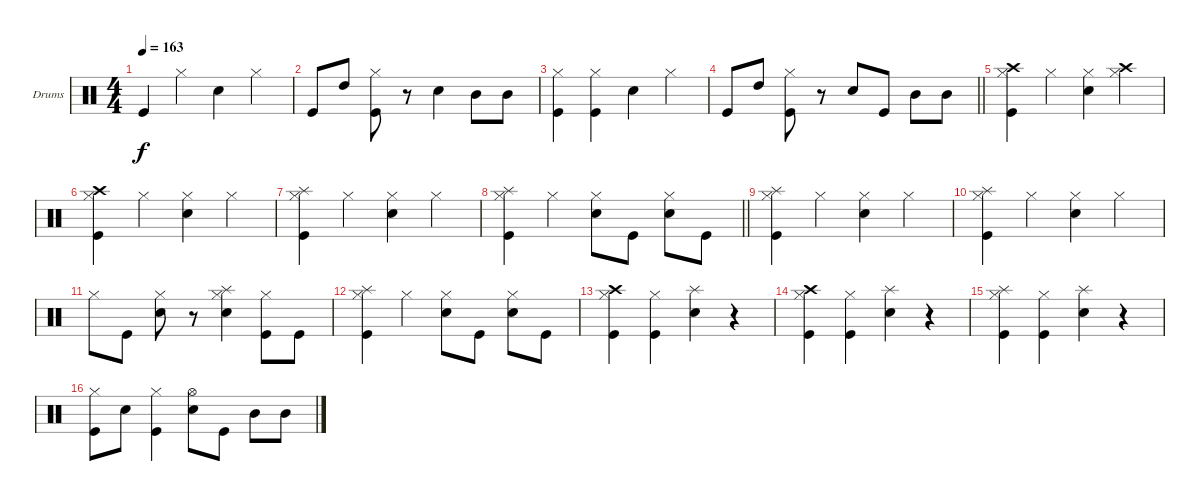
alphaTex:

\bracketExtendMode groupsimilarinstruments
\firstSystemTrackNameOrientation horizontal
\otherSystemsTrackNameOrientation horizontal
\track ("Drumkit" "Drums") {instrument percussion}
\staff {score}
\articulation defaults
\ts (4 4)
\tempo 163
\clef neutral
\scale
0.333333
\ks c "Kick (hit)".4{dy f} "Hi-Hat (closed)".4 "Snare (hit) 2".4 "Hi-Hat (closed)".4
|
\scale
0.333333 "Kick (hit)".8 "High Tom (hit)".8 ("Hi-Hat (closed)" "Kick (hit)").8 r.8 "Snare (hit) 2".4 "Mid Tom (hit)".8 "Mid Tom (hit)".8 |
\scale
0.333333 ("Hi-Hat (closed)" "Kick (hit)").4 ("Hi-Hat (closed)" "Kick (hit)").4 "Snare (hit) 2".4 "Hi-Hat (closed)".4 |
\scale
0.333333
\barLineRight lightlight "Kick (hit)".8 "High Tom (hit)".8
("Hi-Hat (closed)" "Kick (hit)").8 r.8 "Snare (hit) 2".8 "Kick (hit)".8 "Mid Tom (hit)".8 "Mid Tom (hit)".8 |
\scale
0.333333 ("Crash high (hit)" "Kick (hit)" "Hi-Hat (closed)").4 "Hi-Hat (closed)".4 ("Snare (hit) 2" "Hi-Hat (closed)").4 ("Crash high (hit)" "Hi-Hat (closed)").4 |
\scale
0.333333 ("Crash high (hit)" "Kick (hit)" "Hi-Hat (closed)").4 "Hi-Hat (closed)".4 ("Snare (hit) 2" "Hi-Hat (closed)").4 "Hi-Hat (closed)".4 |
\scale
0.333333 ("Splash (hit)" "Kick (hit)" "Hi-Hat (closed)").4 "Hi-Hat (closed)".4 ("Snare (hit) 2" "Hi-Hat (closed)").4 "Hi-Hat (closed)".4 |
\scale
0.333333
\barLineRight lightlight
("Splash (hit)" "Kick (hit)" "Hi-Hat (closed)").4 "Hi-Hat (closed)".4 ("Snare (hit) 2" "Hi-Hat (closed)").8 "Kick (hit)".8 ("Snare (hit) 2" "Hi-Hat (closed)").8 "Kick (hit)".8 |
\scale
0.333333 ("Splash (hit)" "Kick (hit)" "Hi-Hat (closed)").4 "Hi-Hat (closed)".4 ("Snare (hit) 2" "Hi-Hat (closed)").4 "Hi-Hat (closed)".4 |
\scale
0.333333 ("Splash (hit)" "Kick (hit)" "Hi-Hat (closed)").4 "Hi-Hat (closed)".4 ("Snare (hit) 2" "Hi-Hat (closed)").4 "Hi-Hat (closed)".4 |
\scale
0.333333 "Hi-Hat (closed)".8 "Kick (hit)".8 ("Snare (hit) 2" "Hi-Hat (closed)").8 r.8 ("Splash (hit)" "Snare (hit) 2" "Hi-Hat (closed)").4 ("Kick (hit)" "Hi-Hat (closed)").8 "Kick (hit)".8 |
\scale
0.333333 ("Splash (hit)" "Kick (hit)" "Hi-Hat (closed)").4 "Hi-Hat (closed)".4 ("Snare (hit) 2" "Hi-Hat (closed)").8 "Kick (hit)".8 ("Snare (hit) 2" "Hi-Hat (closed)").8 "Kick (hit)".8 |
\scale
0.333333 ("Crash high (hit)" "Kick (hit)" "Hi-Hat (closed)").4 ("Kick (hit)" "Hi-Hat (closed)").4 ("Splash (hit)" "Snare (hit) 2").4 r.4 |
\scale
0.333333 ("Crash high (hit)" "Kick (hit)" "Hi-Hat (closed)").4 ("Kick (hit)" "Hi-Hat (closed)").4 ("Splash (hit)" "Snare (hit) 2").4 r.4 |
\scale
0.333333 ("Splash (hit)" "Kick (hit)" "Hi-Hat (closed)").4 ("Kick (hit)" "Hi-Hat (closed)").4 ("Splash (hit)" "Snare (hit) 2").4 r.4 |
\scale
0.333333 ("Kick (hit)" "Hi-Hat (closed)").8 "Snare (hit) 2".8 ("Kick (hit)" "Hi-Hat (closed)").4 ("Hi-Hat (open)" "Snare (hit) 2").8 "Kick (hit)".8 "Mid Tom (hit)".8 "Mid Tom (hit)".8
